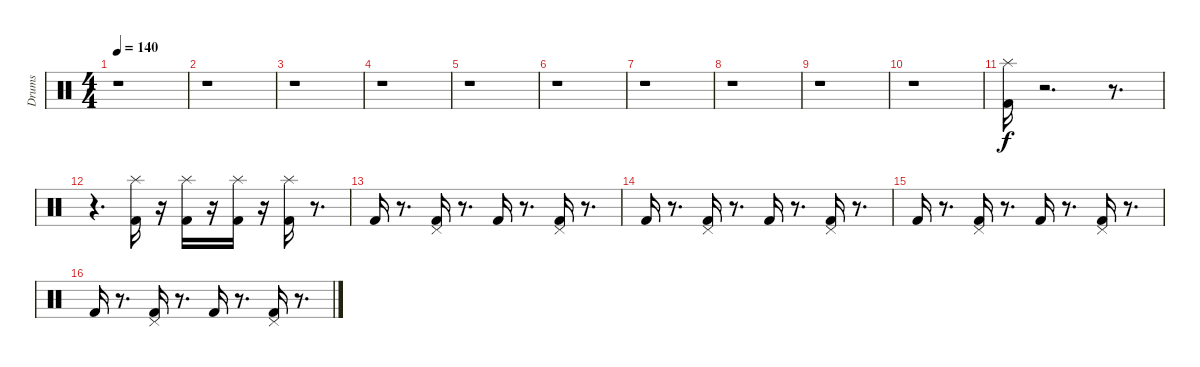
\track ("Drums" "Drums") {instrument percussion}
\staff {score}
\articulation defaults
\ts (4 4)
\tempo 140
\clef neutral
\ks c
r.1{dy f} |
r.1 |
r.1 |
r.1 |
r.1 |
r.1 |
r.1 |
r.1 |
r.1 |
r.1 |
("Splash (hit)" "Kick (hit) 2").16 r.2{d} r.8{d} |
r.4{d} ("Kick (hit) 2" "Splash (hit)").16 r.16 ("Splash (hit)" "Kick (hit) 2").16 r.16 ("Kick (hit) 2" "Splash (hit)").16 r.16 ("Splash (hit)" "Kick (hit) 2").16 r.8{d} |
"Kick (hit) 2".16 r.8{d} ("Kick (hit) 2" "Pedal Hi-Hat (hit)").16 r.8{d} "Kick (hit) 2".16 r.8{d} ("Pedal Hi-Hat (hit)" "Kick (hit) 2").16 r.8{d} |
"Kick (hit) 2".16 r.8{d} ("Pedal Hi-Hat (hit)" "Kick (hit) 2").16 r.8{d} "Kick (hit) 2".16 r.8{d} ("Pedal Hi-Hat (hit)" "Kick (hit) 2").16 r.8{d} |
"Kick (hit) 2".16 r.8{d} ("Pedal Hi-Hat (hit)" "Kick (hit) 2").16 r.8{d} "Kick (hit) 2".16 r.8{d} ("Pedal Hi-Hat (hit)" "Kick (hit) 2").16 r.8{d} |
"Kick (hit) 2".16 r.8{d} ("Pedal Hi-Hat (hit)" "Kick (hit) 2").16 r.8{d} "Kick (hit) 2".16 r.8{d} ("Pedal Hi-Hat (hit)" "Kick (hit) 2").16 r.8{d}
